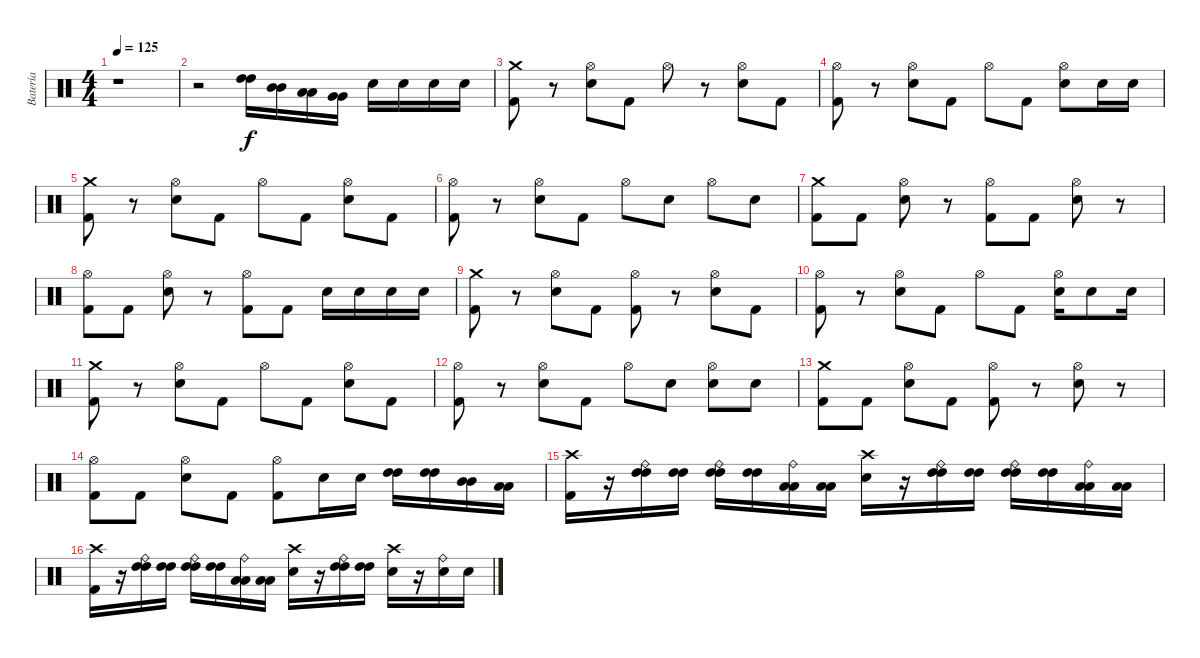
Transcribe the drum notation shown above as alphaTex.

\track ("Batería" "Batería") {instrument percussion}
\staff {score}
\articulation defaults
\ts (4 4)
\tempo 125
\clef neutral
\ks c
r.1{dy f} |
r.2 ("High Tom (hit)" "High Tom (hit)").16 ("Mid Tom (hit)" "Mid Tom (hit)").16 ("Low Tom (hit)" "Low Tom (hit)").16 ("Very Low Tom (hit)" "Very Low Tom (hit)").16 "Snare (hit) 2".16 "Snare (hit) 2".16 "Snare (hit) 2".16 "Snare (hit) 2".16 |
("Crash medium (hit)" "Kick (hit) 2").8 r.8 ("Hi-Hat (open)" "Snare (hit) 2").8 "Kick (hit) 2".8 "Hi-Hat (open)".8 r.8 ("Hi-Hat (open)" "Snare (hit) 2").8 "Kick (hit) 2".8 |
("Hi-Hat (open)" "Kick (hit) 2").8 r.8 ("Hi-Hat (open)" "Snare (hit) 2").8 "Kick (hit) 2".8 "Hi-Hat (open)".8 "Kick (hit) 2".8 ("Hi-Hat (open)" "Snare (hit) 2").8 "Snare (hit) 2".16 "Snare (hit) 2".16 |
("Crash medium (hit)" "Kick (hit) 2").8 r.8 ("Hi-Hat (open)" "Snare (hit) 2").8 "Kick (hit) 2".8 "Hi-Hat (open)".8 "Kick (hit) 2".8 ("Hi-Hat (open)" "Snare (hit) 2").8 "Kick (hit) 2".8 |
("Hi-Hat (open)" "Kick (hit) 2").8 r.8 ("Hi-Hat (open)" "Snare (hit) 2").8 "Kick (hit) 2".8 "Hi-Hat (open)".8 "Snare (hit) 2".8 "Hi-Hat (open)".8 "Snare (hit) 2".8 |
("Crash medium (hit)" "Kick (hit) 2").8 "Kick (hit) 2".8 ("Hi-Hat (open)" "Snare (hit) 2").8 r.8 ("Hi-Hat (open)" "Kick (hit) 2").8 "Kick (hit) 2".8 ("Hi-Hat (open)" "Snare (hit) 2").8 r.8 |
("Hi-Hat (open)" "Kick (hit) 2").8 "Kick (hit) 2".8 ("Hi-Hat (open)" "Snare (hit) 2").8 r.8 ("Hi-Hat (open)" "Kick (hit) 2").8 "Kick (hit) 2".8 "Snare (hit) 2".16 "Snare (hit) 2".16 "Snare (hit) 2".16 "Snare (hit) 2".16 |
("Crash medium (hit)" "Kick (hit) 2").8 r.8 ("Hi-Hat (open)" "Snare (hit) 2").8 "Kick (hit) 2".8 ("Hi-Hat (open)" "Kick (hit) 2").8 r.8 ("Hi-Hat (open)" "Snare (hit) 2").8 "Kick (hit) 2".8 |
("Hi-Hat (open)" "Kick (hit) 2").8 r.8 ("Hi-Hat (open)" "Snare (hit) 2").8 "Kick (hit) 2".8 "Hi-Hat (open)".8 "Kick (hit) 2".8 ("Hi-Hat (open)" "Snare (hit) 2").16 "Snare (hit) 2".8 "Snare (hit) 2".16 |
("Crash medium (hit)" "Kick (hit) 2").8 r.8 ("Hi-Hat (open)" "Snare (hit) 2").8 "Kick (hit) 2".8 "Hi-Hat (open)".8 "Kick (hit) 2".8 ("Hi-Hat (open)" "Snare (hit) 2").8 "Kick (hit) 2".8 |
("Hi-Hat (open)" "Kick (hit) 2").8 r.8 ("Hi-Hat (open)" "Snare (hit) 2").8 "Kick (hit) 2".8 "Hi-Hat (open)".8 "Snare (hit) 2".8 ("Hi-Hat (open)" "Snare (hit) 2").8 "Snare (hit) 2".8 |
("Crash medium (hit)" "Kick (hit) 2").8 "Kick (hit) 2".8 ("Hi-Hat (open)" "Snare (hit) 2").8 "Kick (hit) 2".8 ("Hi-Hat (open)" "Kick (hit) 2").8 r.8 ("Hi-Hat (open)" "Snare (hit) 2").8 r.8 |
("Hi-Hat (open)" "Kick (hit) 2").8 "Kick (hit) 2".8 ("Hi-Hat (open)" "Snare (hit) 2").8 "Kick (hit) 2".8 ("Hi-Hat (open)" "Kick (hit) 2").8 "Snare (hit) 2".16 "Snare (hit) 2".16 ("High Tom (hit)" "High Tom (hit)").16 ("High Tom (hit)" "High Tom (hit)").16 ("Mid Tom (hit)" "Mid Tom (hit)").16 ("Low Tom (hit)" "Low Tom (hit)").16 |
("Crash high (hit)" "Kick (hit) 2").16 r.16 ("Ride (bell)" "High Tom (hit)" "High Tom (hit)").16 ("High Tom (hit)" "High Tom (hit)").16 ("Ride (bell)" "High Tom (hit)" "High Tom (hit)").16 ("High Tom (hit)" "High Tom (hit)").16 ("Ride (bell)" "Low Tom (hit)" "Low Tom (hit)").16 ("Low Tom (hit)" "Low Tom (hit)").16 ("Crash high (hit)" "Snare (hit) 2").16 r.16 ("Ride (bell)" "High Tom (hit)" "High Tom (hit)").16 ("High Tom (hit)" "High Tom (hit)").16 ("Ride (bell)" "High Tom (hit)" "High Tom (hit)").16 ("High Tom (hit)" "High Tom (hit)").16 ("Ride (bell)" "Low Tom (hit)" "Low Tom (hit)").16 ("Low Tom (hit)" "Low Tom (hit)").16 |
("Crash high (hit)" "Kick (hit) 2").16 r.16 ("Ride (bell)" "High Tom (hit)" "High Tom (hit)").16 ("High Tom (hit)" "High Tom (hit)").16 ("Ride (bell)" "High Tom (hit)" "High Tom (hit)").16 ("High Tom (hit)" "High Tom (hit)").16 ("Ride (bell)" "Low Tom (hit)" "Low Tom (hit)").16 ("Low Tom (hit)" "Low Tom (hit)").16 ("Crash high (hit)" "Snare (hit) 2").16 r.16 ("Ride (bell)" "High Tom (hit)" "High Tom (hit)").16 ("High Tom (hit)" "High Tom (hit)").16 ("Crash high (hit)" "Snare (hit) 2").16 r.16 ("Ride (bell)" "Snare (hit) 2").16 "Snare (hit) 2".16
